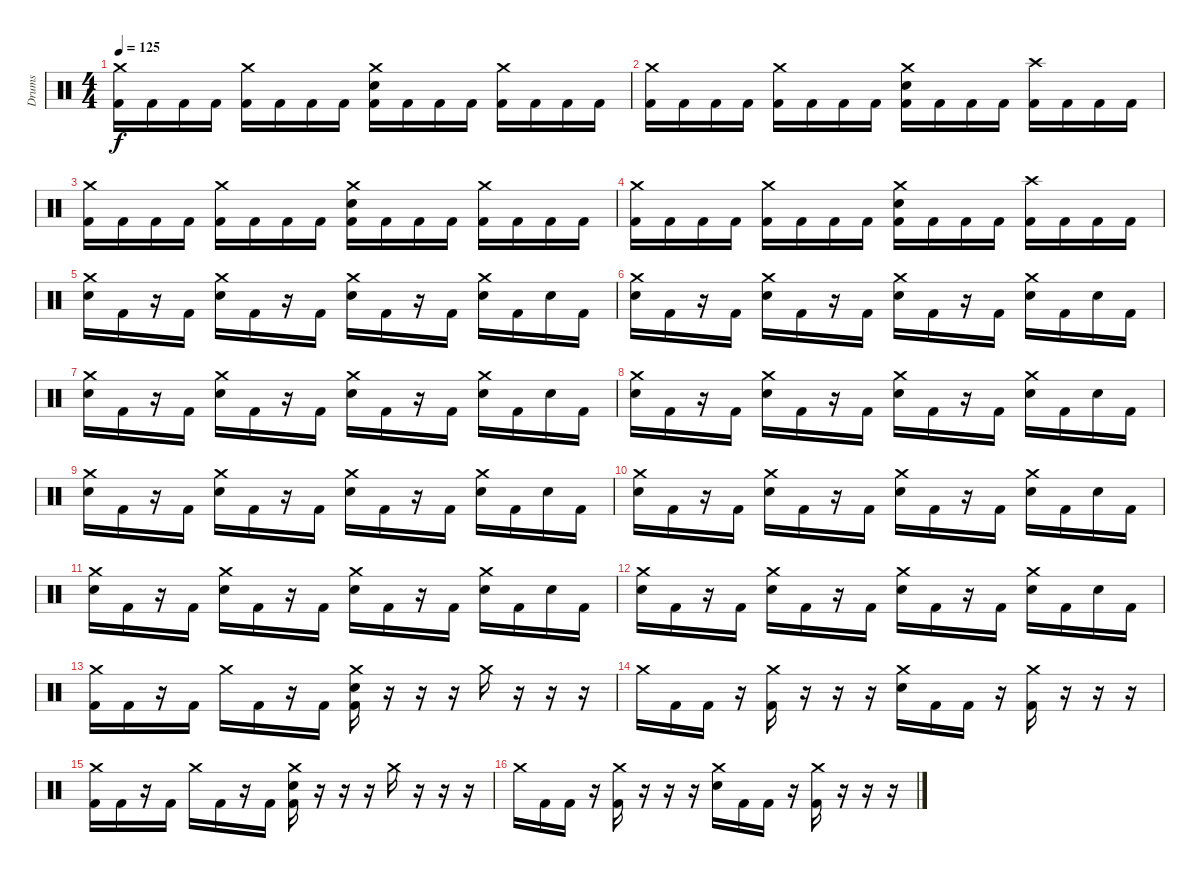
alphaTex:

\track ("Drums" "Drums") {instrument percussion}
\staff {score}
\articulation defaults
\ts (4 4)
\tempo 125
\clef neutral
\ks c
("Crash medium (hit)" "Kick (hit) 2").16{dy f} "Kick (hit) 2".16 "Kick (hit) 2".16 "Kick (hit) 2".16 ("Crash medium (hit)" "Kick (hit) 2").16 "Kick (hit) 2".16 "Kick (hit) 2".16 "Kick (hit) 2".16 ("Crash medium (hit)" "Electric Snare (hit)" "Kick (hit) 2").16 "Kick (hit) 2".16 "Kick (hit) 2".16 "Kick (hit) 2".16 ("Crash medium (hit)" "Kick (hit) 2").16 "Kick (hit) 2".16 "Kick (hit) 2".16 "Kick (hit) 2".16 |
("Crash medium (hit)" "Kick (hit) 2").16 "Kick (hit) 2".16 "Kick (hit) 2".16 "Kick (hit) 2".16 ("Crash medium (hit)" "Kick (hit) 2").16 "Kick (hit) 2".16 "Kick (hit) 2".16 "Kick (hit) 2".16 ("Crash medium (hit)" "Electric Snare (hit)" "Kick (hit) 2").16 "Kick (hit) 2".16 "Kick (hit) 2".16 "Kick (hit) 2".16 ("Crash high (hit)" "Kick (hit) 2").16 "Kick (hit) 2".16 "Kick (hit) 2".16 "Kick (hit) 2".16 |
("Crash medium (hit)" "Kick (hit) 2").16 "Kick (hit) 2".16 "Kick (hit) 2".16 "Kick (hit) 2".16 ("Crash medium (hit)" "Kick (hit) 2").16 "Kick (hit) 2".16 "Kick (hit) 2".16 "Kick (hit) 2".16 ("Crash medium (hit)" "Electric Snare (hit)" "Kick (hit) 2").16 "Kick (hit) 2".16 "Kick (hit) 2".16 "Kick (hit) 2".16 ("Crash medium (hit)" "Kick (hit) 2").16 "Kick (hit) 2".16 "Kick (hit) 2".16 "Kick (hit) 2".16 |
("Crash medium (hit)" "Kick (hit) 2").16 "Kick (hit) 2".16 "Kick (hit) 2".16 "Kick (hit) 2".16 ("Crash medium (hit)" "Kick (hit) 2").16 "Kick (hit) 2".16 "Kick (hit) 2".16 "Kick (hit) 2".16 ("Crash medium (hit)" "Electric Snare (hit)" "Kick (hit) 2").16 "Kick (hit) 2".16 "Kick (hit) 2".16 "Kick (hit) 2".16 ("Crash high (hit)" "Kick (hit) 2").16 "Kick (hit) 2".16 "Kick (hit) 2".16 "Kick (hit) 2".16 |
("Crash medium (hit)" "Electric Snare (hit)").16 "Kick (hit) 2".16 r.16 "Kick (hit) 2".16 ("Crash medium (hit)" "Electric Snare (hit)").16 "Kick (hit) 2".16 r.16 "Kick (hit) 2".16 ("Crash medium (hit)" "Electric Snare (hit)").16 "Kick (hit) 2".16 r.16 "Kick (hit) 2".16 ("Crash medium (hit)" "Electric Snare (hit)").16 "Kick (hit) 2".16 "Electric Snare (hit)".16 "Kick (hit) 2".16 |
("Crash medium (hit)" "Electric Snare (hit)").16 "Kick (hit) 2".16 r.16 "Kick (hit) 2".16 ("Crash medium (hit)" "Electric Snare (hit)").16 "Kick (hit) 2".16 r.16 "Kick (hit) 2".16 ("Crash medium (hit)" "Electric Snare (hit)").16 "Kick (hit) 2".16 r.16 "Kick (hit) 2".16 ("Crash medium (hit)" "Electric Snare (hit)").16 "Kick (hit) 2".16 "Electric Snare (hit)".16 "Kick (hit) 2".16 |
("Crash medium (hit)" "Electric Snare (hit)").16 "Kick (hit) 2".16 r.16 "Kick (hit) 2".16 ("Crash medium (hit)" "Electric Snare (hit)").16 "Kick (hit) 2".16 r.16 "Kick (hit) 2".16 ("Crash medium (hit)" "Electric Snare (hit)").16 "Kick (hit) 2".16 r.16 "Kick (hit) 2".16 ("Crash medium (hit)" "Electric Snare (hit)").16 "Kick (hit) 2".16 "Electric Snare (hit)".16 "Kick (hit) 2".16 |
("Crash medium (hit)" "Electric Snare (hit)").16 "Kick (hit) 2".16 r.16 "Kick (hit) 2".16 ("Crash medium (hit)" "Electric Snare (hit)").16 "Kick (hit) 2".16 r.16 "Kick (hit) 2".16 ("Crash medium (hit)" "Electric Snare (hit)").16 "Kick (hit) 2".16 r.16 "Kick (hit) 2".16 ("Crash medium (hit)" "Electric Snare (hit)").16 "Kick (hit) 2".16 "Electric Snare (hit)".16 "Kick (hit) 2".16 |
("Crash medium (hit)" "Electric Snare (hit)").16 "Kick (hit) 2".16 r.16 "Kick (hit) 2".16 ("Crash medium (hit)" "Electric Snare (hit)").16 "Kick (hit) 2".16 r.16 "Kick (hit) 2".16 ("Crash medium (hit)" "Electric Snare (hit)").16 "Kick (hit) 2".16 r.16 "Kick (hit) 2".16 ("Crash medium (hit)" "Electric Snare (hit)").16 "Kick (hit) 2".16 "Electric Snare (hit)".16 "Kick (hit) 2".16 |
("Crash medium (hit)" "Electric Snare (hit)").16 "Kick (hit) 2".16 r.16 "Kick (hit) 2".16 ("Crash medium (hit)" "Electric Snare (hit)").16 "Kick (hit) 2".16 r.16 "Kick (hit) 2".16 ("Crash medium (hit)" "Electric Snare (hit)").16 "Kick (hit) 2".16 r.16 "Kick (hit) 2".16 ("Crash medium (hit)" "Electric Snare (hit)").16 "Kick (hit) 2".16 "Electric Snare (hit)".16 "Kick (hit) 2".16 |
("Crash medium (hit)" "Electric Snare (hit)").16 "Kick (hit) 2".16 r.16 "Kick (hit) 2".16 ("Crash medium (hit)" "Electric Snare (hit)").16 "Kick (hit) 2".16 r.16 "Kick (hit) 2".16 ("Crash medium (hit)" "Electric Snare (hit)").16 "Kick (hit) 2".16 r.16 "Kick (hit) 2".16 ("Crash medium (hit)" "Electric Snare (hit)").16 "Kick (hit) 2".16 "Electric Snare (hit)".16 "Kick (hit) 2".16 |
("Crash medium (hit)" "Electric Snare (hit)").16 "Kick (hit) 2".16 r.16 "Kick (hit) 2".16 ("Crash medium (hit)" "Electric Snare (hit)").16 "Kick (hit) 2".16 r.16 "Kick (hit) 2".16 ("Crash medium (hit)" "Electric Snare (hit)").16 "Kick (hit) 2".16 r.16 "Kick (hit) 2".16 ("Crash medium (hit)" "Electric Snare (hit)").16 "Kick (hit) 2".16 "Electric Snare (hit)".16 "Kick (hit) 2".16 |
("Crash medium (hit)" "Kick (hit) 2").16 "Kick (hit) 2".16 r.16 "Kick (hit) 2".16 "Crash medium (hit)".16 "Kick (hit) 2".16 r.16 "Kick (hit) 2".16 ("Crash medium (hit)" "Electric Snare (hit)" "Kick (hit) 2").16 r.16 r.16 r.16 "Crash medium (hit)".16 r.16 r.16 r.16 |
"Crash medium (hit)".16 "Kick (hit) 2".16 "Kick (hit) 2".16 r.16 ("Crash medium (hit)" "Kick (hit) 2").16 r.16 r.16 r.16 ("Crash medium (hit)" "Electric Snare (hit)").16 "Kick (hit) 2".16 "Kick (hit) 2".16 r.16 ("Crash medium (hit)" "Kick (hit) 2").16 r.16 r.16 r.16 |
("Crash medium (hit)" "Kick (hit) 2").16 "Kick (hit) 2".16 r.16 "Kick (hit) 2".16 "Crash medium (hit)".16 "Kick (hit) 2".16 r.16 "Kick (hit) 2".16 ("Crash medium (hit)" "Electric Snare (hit)" "Kick (hit) 2").16 r.16 r.16 r.16 "Crash medium (hit)".16 r.16 r.16 r.16 |
"Crash medium (hit)".16 "Kick (hit) 2".16 "Kick (hit) 2".16 r.16 ("Crash medium (hit)" "Kick (hit) 2").16 r.16 r.16 r.16 ("Crash medium (hit)" "Electric Snare (hit)").16 "Kick (hit) 2".16 "Kick (hit) 2".16 r.16 ("Crash medium (hit)" "Kick (hit) 2").16 r.16 r.16 r.16
